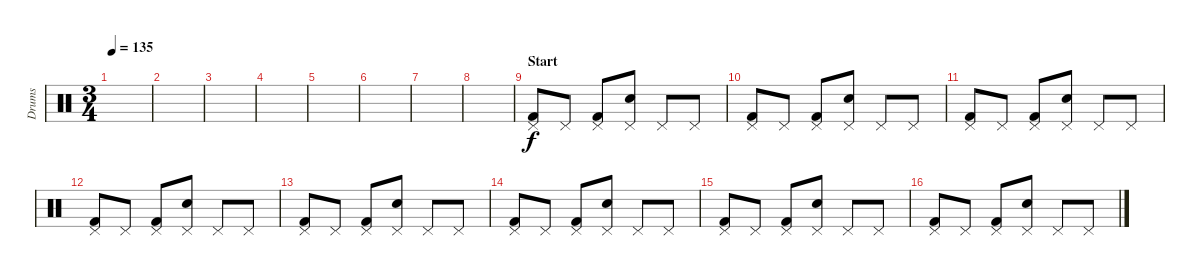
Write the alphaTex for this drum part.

\track ("Drums" "Drums") {instrument percussion}
\staff {score}
\articulation defaults
\ts (3 4)
\tempo 135
\clef neutral
\ks c
|
|
|
|
|
|
|
|
\section ("" "Start")
("Pedal Hi-Hat (hit)" "Kick (hit) 2").8 "Pedal Hi-Hat (hit)".8 ("Pedal Hi-Hat (hit)" "Kick (hit) 2").8 ("Pedal Hi-Hat (hit)" "Snare (hit) 2").8 "Pedal Hi-Hat (hit)".8 "Pedal Hi-Hat (hit)".8 |
("Pedal Hi-Hat (hit)" "Kick (hit) 2").8 "Pedal Hi-Hat (hit)".8 ("Pedal Hi-Hat (hit)" "Kick (hit) 2").8 ("Pedal Hi-Hat (hit)" "Snare (hit) 2").8 "Pedal Hi-Hat (hit)".8 "Pedal Hi-Hat (hit)".8 |
("Pedal Hi-Hat (hit)" "Kick (hit) 2").8 "Pedal Hi-Hat (hit)".8 ("Pedal Hi-Hat (hit)" "Kick (hit) 2").8 ("Pedal Hi-Hat (hit)" "Snare (hit) 2").8 "Pedal Hi-Hat (hit)".8 "Pedal Hi-Hat (hit)".8 |
("Pedal Hi-Hat (hit)" "Kick (hit) 2").8 "Pedal Hi-Hat (hit)".8 ("Pedal Hi-Hat (hit)" "Kick (hit) 2").8 ("Pedal Hi-Hat (hit)" "Snare (hit) 2").8 "Pedal Hi-Hat (hit)".8 "Pedal Hi-Hat (hit)".8 |
("Pedal Hi-Hat (hit)" "Kick (hit) 2").8 "Pedal Hi-Hat (hit)".8 ("Pedal Hi-Hat (hit)" "Kick (hit) 2").8 ("Pedal Hi-Hat (hit)" "Snare (hit) 2").8 "Pedal Hi-Hat (hit)".8 "Pedal Hi-Hat (hit)".8 |
("Pedal Hi-Hat (hit)" "Kick (hit) 2").8 "Pedal Hi-Hat (hit)".8 ("Pedal Hi-Hat (hit)" "Kick (hit) 2").8 ("Pedal Hi-Hat (hit)" "Snare (hit) 2").8 "Pedal Hi-Hat (hit)".8 "Pedal Hi-Hat (hit)".8 |
("Pedal Hi-Hat (hit)" "Kick (hit) 2").8 "Pedal Hi-Hat (hit)".8 ("Pedal Hi-Hat (hit)" "Kick (hit) 2").8 ("Pedal Hi-Hat (hit)" "Snare (hit) 2").8 "Pedal Hi-Hat (hit)".8 "Pedal Hi-Hat (hit)".8 |
("Pedal Hi-Hat (hit)" "Kick (hit) 2").8 "Pedal Hi-Hat (hit)".8 ("Pedal Hi-Hat (hit)" "Kick (hit) 2").8 ("Pedal Hi-Hat (hit)" "Snare (hit) 2").8 "Pedal Hi-Hat (hit)".8 "Pedal Hi-Hat (hit)".8
